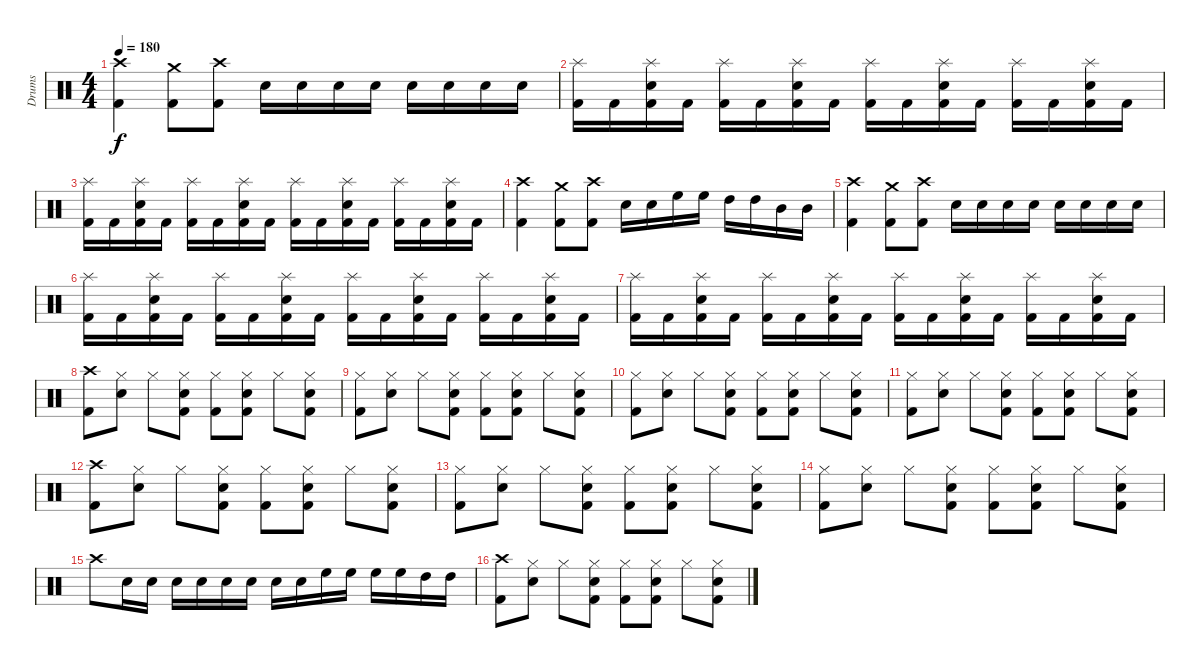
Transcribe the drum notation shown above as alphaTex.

\track ("Drums" "Drums") {instrument percussion}
\staff {score}
\articulation defaults
\ts (4 4)
\tempo 180
\clef neutral
\ks c
("Crash high (hit)" "Kick (hit) 2").4{dy f} ("Crash medium (hit)" "Kick (hit) 2").8 ("Crash high (hit)" "Kick (hit) 2").8 "Snare (hit) 2".16 "Snare (hit) 2".16 "Snare (hit) 2".16 "Snare (hit) 2".16 "Snare (hit) 2".16 "Snare (hit) 2".16 "Snare (hit) 2".16 "Snare (hit) 2".16 |
("Splash (hit)" "Kick (hit) 2").16 "Kick (hit) 2".16 ("Splash (hit)" "Snare (hit) 2" "Kick (hit) 2").16 "Kick (hit) 2".16 ("Splash (hit)" "Kick (hit) 2").16 "Kick (hit) 2".16 ("Splash (hit)" "Snare (hit) 2" "Kick (hit) 2").16 "Kick (hit) 2".16 ("Splash (hit)" "Kick (hit) 2").16 "Kick (hit) 2".16 ("Splash (hit)" "Snare (hit) 2" "Kick (hit) 2").16 "Kick (hit) 2".16 ("Splash (hit)" "Kick (hit) 2").16 "Kick (hit) 2".16 ("Splash (hit)" "Snare (hit) 2" "Kick (hit) 2").16 "Kick (hit) 2".16 |
("Splash (hit)" "Kick (hit) 2").16 "Kick (hit) 2".16 ("Splash (hit)" "Snare (hit) 2" "Kick (hit) 2").16 "Kick (hit) 2".16 ("Splash (hit)" "Kick (hit) 2").16 "Kick (hit) 2".16 ("Splash (hit)" "Snare (hit) 2" "Kick (hit) 2").16 "Kick (hit) 2".16 ("Splash (hit)" "Kick (hit) 2").16 "Kick (hit) 2".16 ("Splash (hit)" "Snare (hit) 2" "Kick (hit) 2").16 "Kick (hit) 2".16 ("Splash (hit)" "Kick (hit) 2").16 "Kick (hit) 2".16 ("Splash (hit)" "Snare (hit) 2" "Kick (hit) 2").16 "Kick (hit) 2".16 |
("Crash high (hit)" "Kick (hit) 2").4 ("Crash medium (hit)" "Kick (hit) 2").8 ("Crash high (hit)" "Kick (hit) 2").8 "Snare (hit) 2".16 "Snare (hit) 2".16 "High Floor Tom (hit)".16 "High Floor Tom (hit)".16 "High Tom (hit)".16 "High Tom (hit)".16 "Mid Tom (hit)".16 "Mid Tom (hit)".16 |
("Crash high (hit)" "Kick (hit) 2").4 ("Crash medium (hit)" "Kick (hit) 2").8 ("Crash high (hit)" "Kick (hit) 2").8 "Snare (hit) 2".16 "Snare (hit) 2".16 "Snare (hit) 2".16 "Snare (hit) 2".16 "Snare (hit) 2".16 "Snare (hit) 2".16 "Snare (hit) 2".16 "Snare (hit) 2".16 |
("Splash (hit)" "Kick (hit) 2").16 "Kick (hit) 2".16 ("Splash (hit)" "Snare (hit) 2" "Kick (hit) 2").16 "Kick (hit) 2".16 ("Splash (hit)" "Kick (hit) 2").16 "Kick (hit) 2".16 ("Splash (hit)" "Snare (hit) 2" "Kick (hit) 2").16 "Kick (hit) 2".16 ("Splash (hit)" "Kick (hit) 2").16 "Kick (hit) 2".16 ("Splash (hit)" "Snare (hit) 2" "Kick (hit) 2").16 "Kick (hit) 2".16 ("Splash (hit)" "Kick (hit) 2").16 "Kick (hit) 2".16 ("Splash (hit)" "Snare (hit) 2" "Kick (hit) 2").16 "Kick (hit) 2".16 |
("Splash (hit)" "Kick (hit) 2").16 "Kick (hit) 2".16 ("Splash (hit)" "Snare (hit) 2" "Kick (hit) 2").16 "Kick (hit) 2".16 ("Splash (hit)" "Kick (hit) 2").16 "Kick (hit) 2".16 ("Splash (hit)" "Snare (hit) 2" "Kick (hit) 2").16 "Kick (hit) 2".16 ("Splash (hit)" "Kick (hit) 2").16 "Kick (hit) 2".16 ("Splash (hit)" "Snare (hit) 2" "Kick (hit) 2").16 "Kick (hit) 2".16 ("Splash (hit)" "Kick (hit) 2").16 "Kick (hit) 2".16 ("Splash (hit)" "Snare (hit) 2" "Kick (hit) 2").16 "Kick (hit) 2".16 |
("Crash high (hit)" "Kick (hit) 2").8 ("Hi-Hat (closed)" "Snare (hit) 2").8 "Hi-Hat (closed)".8 ("Hi-Hat (closed)" "Snare (hit) 2" "Kick (hit) 2").8 ("Hi-Hat (closed)" "Kick (hit) 2").8 ("Hi-Hat (closed)" "Snare (hit) 2" "Kick (hit) 2").8 "Hi-Hat (closed)".8 ("Hi-Hat (closed)" "Snare (hit) 2" "Kick (hit) 2").8 |
("Hi-Hat (closed)" "Kick (hit) 2").8 ("Hi-Hat (closed)" "Snare (hit) 2").8 "Hi-Hat (closed)".8 ("Hi-Hat (closed)" "Snare (hit) 2" "Kick (hit) 2").8 ("Hi-Hat (closed)" "Kick (hit) 2").8 ("Hi-Hat (closed)" "Snare (hit) 2" "Kick (hit) 2").8 "Hi-Hat (closed)".8 ("Hi-Hat (closed)" "Snare (hit) 2" "Kick (hit) 2").8 |
("Hi-Hat (closed)" "Kick (hit) 2").8 ("Hi-Hat (closed)" "Snare (hit) 2").8 "Hi-Hat (closed)".8 ("Hi-Hat (closed)" "Snare (hit) 2" "Kick (hit) 2").8 ("Hi-Hat (closed)" "Kick (hit) 2").8 ("Hi-Hat (closed)" "Snare (hit) 2" "Kick (hit) 2").8 "Hi-Hat (closed)".8 ("Hi-Hat (closed)" "Snare (hit) 2" "Kick (hit) 2").8 |
("Hi-Hat (closed)" "Kick (hit) 2").8 ("Hi-Hat (closed)" "Snare (hit) 2").8 "Hi-Hat (closed)".8 ("Hi-Hat (closed)" "Snare (hit) 2" "Kick (hit) 2").8 ("Hi-Hat (closed)" "Kick (hit) 2").8 ("Hi-Hat (closed)" "Snare (hit) 2" "Kick (hit) 2").8 "Hi-Hat (closed)".8 ("Hi-Hat (closed)" "Snare (hit) 2" "Kick (hit) 2").8 |
("Crash high (hit)" "Kick (hit) 2").8 ("Hi-Hat (closed)" "Snare (hit) 2").8 "Hi-Hat (closed)".8 ("Hi-Hat (closed)" "Snare (hit) 2" "Kick (hit) 2").8 ("Hi-Hat (closed)" "Kick (hit) 2").8 ("Hi-Hat (closed)" "Snare (hit) 2" "Kick (hit) 2").8 "Hi-Hat (closed)".8 ("Hi-Hat (closed)" "Snare (hit) 2" "Kick (hit) 2").8 |
("Hi-Hat (closed)" "Kick (hit) 2").8 ("Hi-Hat (closed)" "Snare (hit) 2").8 "Hi-Hat (closed)".8 ("Hi-Hat (closed)" "Snare (hit) 2" "Kick (hit) 2").8 ("Hi-Hat (closed)" "Kick (hit) 2").8 ("Hi-Hat (closed)" "Snare (hit) 2" "Kick (hit) 2").8 "Hi-Hat (closed)".8 ("Hi-Hat (closed)" "Snare (hit) 2" "Kick (hit) 2").8 |
("Hi-Hat (closed)" "Kick (hit) 2").8 ("Hi-Hat (closed)" "Snare (hit) 2").8 "Hi-Hat (closed)".8 ("Hi-Hat (closed)" "Snare (hit) 2" "Kick (hit) 2").8 ("Hi-Hat (closed)" "Kick (hit) 2").8 ("Hi-Hat (closed)" "Snare (hit) 2" "Kick (hit) 2").8 "Hi-Hat (closed)".8 ("Hi-Hat (closed)" "Snare (hit) 2" "Kick (hit) 2").8 |
"Crash high (hit)".8 "Snare (hit) 2".16 "Snare (hit) 2".16 "Snare (hit) 2".16 "Snare (hit) 2".16 "Snare (hit) 2".16 "Snare (hit) 2".16 "Snare (hit) 2".16 "Snare (hit) 2".16 "High Floor Tom (hit)".16 "High Floor Tom (hit)".16 "High Floor Tom (hit)".16 "High Floor Tom (hit)".16 "High Tom (hit)".16 "High Tom (hit)".16 |
("Crash high (hit)" "Kick (hit) 2").8 ("Hi-Hat (closed)" "Snare (hit) 2").8 "Hi-Hat (closed)".8 ("Hi-Hat (closed)" "Snare (hit) 2" "Kick (hit) 2").8 ("Hi-Hat (closed)" "Kick (hit) 2").8 ("Hi-Hat (closed)" "Snare (hit) 2" "Kick (hit) 2").8 "Hi-Hat (closed)".8 ("Hi-Hat (closed)" "Snare (hit) 2" "Kick (hit) 2").8
